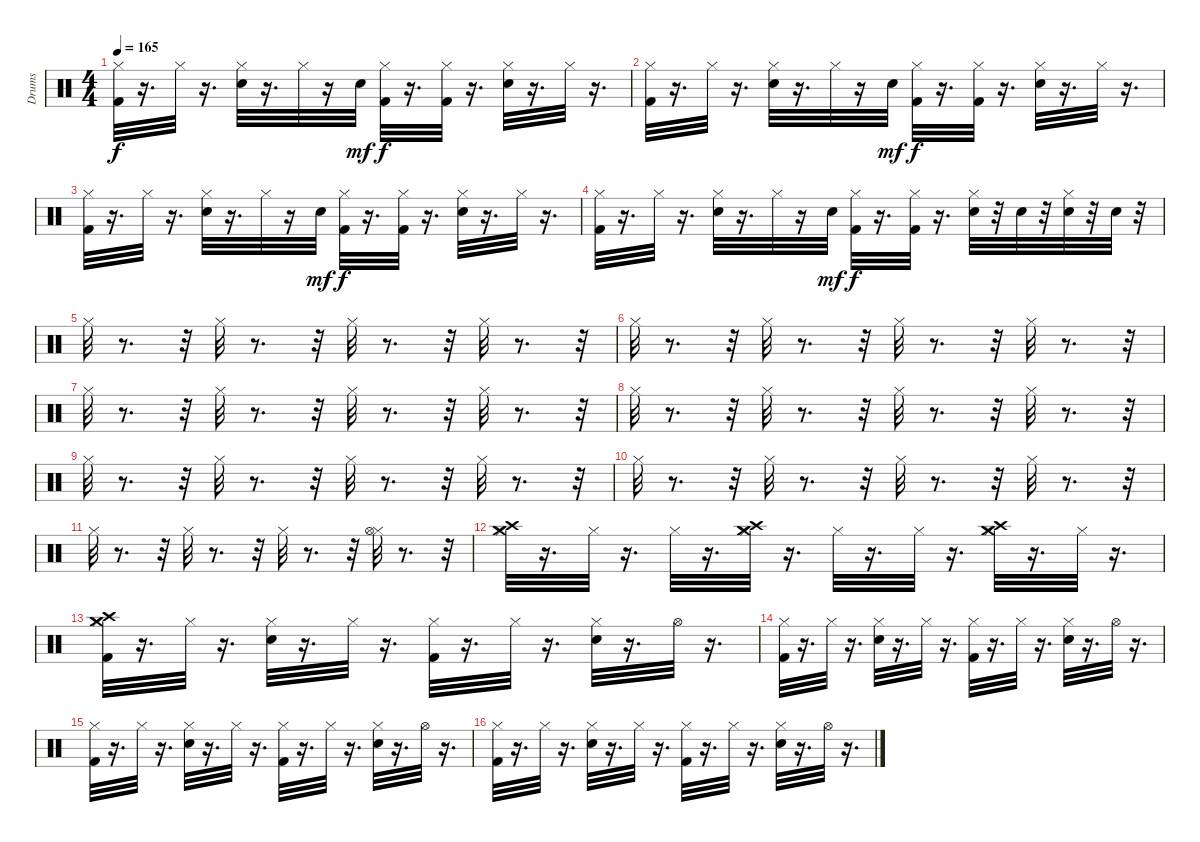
\track ("Drums" "Drums") {instrument percussion}
\staff {score}
\articulation defaults
\ts (4 4)
\tempo 165
\clef neutral
\ks c
("Hi-Hat (closed)" "Kick (hit) 2").32{dy f} r.16{d} "Hi-Hat (closed)".32 r.16{d} ("Hi-Hat (closed)" "Electric Snare (hit)").32 r.16{d} "Hi-Hat (closed)".32 r.16 "Electric Snare (hit)".32{dy mf} ("Kick (hit) 2" "Hi-Hat (closed)").32{dy f} r.16{d} ("Hi-Hat (closed)" "Kick (hit) 2").32 r.16{d} ("Electric Snare (hit)" "Hi-Hat (closed)").32 r.16{d} "Hi-Hat (closed)".32 r.16{d} |
("Hi-Hat (closed)" "Kick (hit) 2").32 r.16{d} "Hi-Hat (closed)".32 r.16{d} ("Hi-Hat (closed)" "Electric Snare (hit)").32 r.16{d} "Hi-Hat (closed)".32 r.16 "Electric Snare (hit)".32{dy mf} ("Kick (hit) 2" "Hi-Hat (closed)").32{dy f} r.16{d} ("Hi-Hat (closed)" "Kick (hit) 2").32 r.16{d} ("Electric Snare (hit)" "Hi-Hat (closed)").32 r.16{d} "Hi-Hat (closed)".32 r.16{d} |
("Hi-Hat (closed)" "Kick (hit) 2").32 r.16{d} "Hi-Hat (closed)".32 r.16{d} ("Hi-Hat (closed)" "Electric Snare (hit)").32 r.16{d} "Hi-Hat (closed)".32 r.16 "Electric Snare (hit)".32{dy mf} ("Kick (hit) 2" "Hi-Hat (closed)").32{dy f} r.16{d} ("Hi-Hat (closed)" "Kick (hit) 2").32 r.16{d} ("Electric Snare (hit)" "Hi-Hat (closed)").32 r.16{d} "Hi-Hat (closed)".32 r.16{d} |
("Hi-Hat (closed)" "Kick (hit) 2").32 r.16{d} "Hi-Hat (closed)".32 r.16{d} ("Hi-Hat (closed)" "Electric Snare (hit)").32 r.16{d} "Hi-Hat (closed)".32 r.16 "Electric Snare (hit)".32{dy mf} ("Kick (hit) 2" "Hi-Hat (closed)").32{dy f} r.16{d} ("Hi-Hat (closed)" "Kick (hit) 2").32 r.16{d} ("Electric Snare (hit)" "Hi-Hat (closed)").32 r.32 "Electric Snare (hit)".32 r.32 ("Electric Snare (hit)" "Hi-Hat (closed)").32 r.32 "Electric Snare (hit)".32 r.32 |
"Hi-Hat (closed)".32 r.8{d} r.32 "Hi-Hat (closed)".32 r.8{d} r.32 "Hi-Hat (closed)".32 r.8{d} r.32 "Hi-Hat (closed)".32 r.8{d} r.32 |
"Hi-Hat (closed)".32 r.8{d} r.32 "Hi-Hat (closed)".32 r.8{d} r.32 "Hi-Hat (closed)".32 r.8{d} r.32 "Hi-Hat (closed)".32 r.8{d} r.32 |
"Hi-Hat (closed)".32 r.8{d} r.32 "Hi-Hat (closed)".32 r.8{d} r.32 "Hi-Hat (closed)".32 r.8{d} r.32 "Hi-Hat (closed)".32 r.8{d} r.32 |
"Hi-Hat (closed)".32 r.8{d} r.32 "Hi-Hat (closed)".32 r.8{d} r.32 "Hi-Hat (closed)".32 r.8{d} r.32 "Hi-Hat (closed)".32 r.8{d} r.32 |
"Hi-Hat (closed)".32 r.8{d} r.32 "Hi-Hat (closed)".32 r.8{d} r.32 "Hi-Hat (closed)".32 r.8{d} r.32 "Hi-Hat (closed)".32 r.8{d} r.32 |
"Hi-Hat (closed)".32 r.8{d} r.32 "Hi-Hat (closed)".32 r.8{d} r.32 "Hi-Hat (closed)".32 r.8{d} r.32 "Hi-Hat (closed)".32 r.8{d} r.32 |
"Hi-Hat (closed)".32 r.8{d} r.32 "Hi-Hat (closed)".32 r.8{d} r.32 "Hi-Hat (closed)".32 r.8{d} r.32 ("Hi-Hat (closed)" "Hi-Hat (open)").32 r.8{d} r.32 |
("Hi-Hat (closed)" "Crash medium (hit)" "Crash high (hit)").32 r.16{d} "Hi-Hat (closed)".32 r.16{d} "Hi-Hat (closed)".32 r.16{d} ("Hi-Hat (closed)" "Crash medium (hit)" "Crash high (hit)").32 r.16{d} "Hi-Hat (closed)".32 r.16{d} "Hi-Hat (closed)".32 r.16{d} ("Hi-Hat (closed)" "Crash high (hit)" "Crash medium (hit)").32 r.16{d} "Hi-Hat (closed)".32 r.16{d} |
("Kick (hit) 2" "Hi-Hat (closed)" "Crash high (hit)" "Crash medium (hit)").32 r.16{d} "Hi-Hat (closed)".32 r.16{d} ("Hi-Hat (closed)" "Electric Snare (hit)").32 r.16{d} "Hi-Hat (closed)".32 r.16{d} ("Kick (hit) 2" "Hi-Hat (closed)").32 r.16{d} "Hi-Hat (closed)".32 r.16{d} ("Electric Snare (hit)" "Hi-Hat (closed)").32 r.16{d} "Hi-Hat (open)".32 r.16{d} |
("Kick (hit) 2" "Hi-Hat (closed)").32 r.16{d} "Hi-Hat (closed)".32 r.16{d} ("Hi-Hat (closed)" "Electric Snare (hit)").32 r.16{d} "Hi-Hat (closed)".32 r.16{d} ("Kick (hit) 2" "Hi-Hat (closed)").32 r.16{d} "Hi-Hat (closed)".32 r.16{d} ("Electric Snare (hit)" "Hi-Hat (closed)").32 r.16{d} "Hi-Hat (open)".32 r.16{d} |
("Kick (hit) 2" "Hi-Hat (closed)").32 r.16{d} "Hi-Hat (closed)".32 r.16{d} ("Hi-Hat (closed)" "Electric Snare (hit)").32 r.16{d} "Hi-Hat (closed)".32 r.16{d} ("Kick (hit) 2" "Hi-Hat (closed)").32 r.16{d} "Hi-Hat (closed)".32 r.16{d} ("Electric Snare (hit)" "Hi-Hat (closed)").32 r.16{d} "Hi-Hat (open)".32 r.16{d} |
("Kick (hit) 2" "Hi-Hat (closed)").32 r.16{d} "Hi-Hat (closed)".32 r.16{d} ("Hi-Hat (closed)" "Electric Snare (hit)").32 r.16{d} "Hi-Hat (closed)".32 r.16{d} ("Kick (hit) 2" "Hi-Hat (closed)").32 r.16{d} "Hi-Hat (closed)".32 r.16{d} ("Electric Snare (hit)" "Hi-Hat (closed)").32 r.16{d} "Hi-Hat (open)".32 r.16{d}
